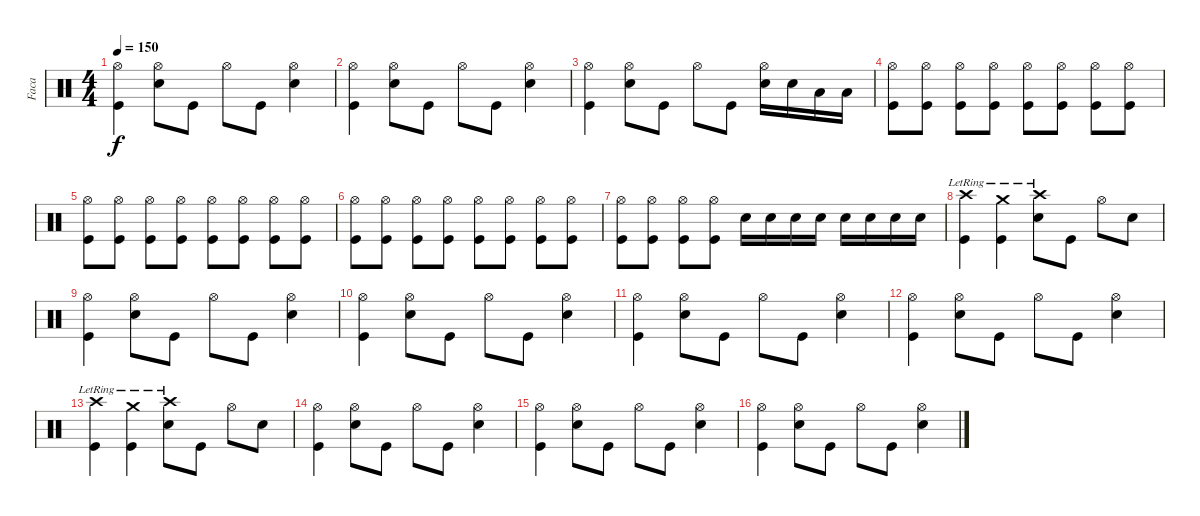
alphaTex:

\track ("Faca" "Faca") {instrument percussion}
\staff {score}
\articulation defaults
\ts (4 4)
\tempo 150
\clef neutral
\ks c
("Hi-Hat (open)" "Kick (hit)").4{dy f} ("Hi-Hat (open)" "Snare (hit) 2").8 "Kick (hit)".8 "Hi-Hat (open)".8 "Kick (hit)".8 ("Hi-Hat (open)" "Snare (hit) 2").4 |
("Hi-Hat (open)" "Kick (hit)").4 ("Hi-Hat (open)" "Snare (hit) 2").8 "Kick (hit)".8 "Hi-Hat (open)".8 "Kick (hit)".8 ("Hi-Hat (open)" "Snare (hit) 2").4 |
("Hi-Hat (open)" "Kick (hit)").4 ("Hi-Hat (open)" "Snare (hit) 2").8 "Kick (hit)".8 "Hi-Hat (open)".8 "Kick (hit)".8 ("Hi-Hat (open)" "Snare (hit) 2").16 "Snare (hit) 2".16 "Low Tom (hit)".16 "Low Floor Tom (hit)".16 |
("Hi-Hat (open)" "Kick (hit)").8 ("Hi-Hat (open)" "Kick (hit)").8 ("Hi-Hat (open)" "Kick (hit)").8 ("Hi-Hat (open)" "Kick (hit)").8 ("Hi-Hat (open)" "Kick (hit)").8 ("Hi-Hat (open)" "Kick (hit)").8 ("Hi-Hat (open)" "Kick (hit)").8 ("Hi-Hat (open)" "Kick (hit)").8 |
("Hi-Hat (open)" "Kick (hit)").8 ("Hi-Hat (open)" "Kick (hit)").8 ("Hi-Hat (open)" "Kick (hit)").8 ("Hi-Hat (open)" "Kick (hit)").8 ("Hi-Hat (open)" "Kick (hit)").8 ("Hi-Hat (open)" "Kick (hit)").8 ("Hi-Hat (open)" "Kick (hit)").8 ("Hi-Hat (open)" "Kick (hit)").8 |
("Hi-Hat (open)" "Kick (hit)").8 ("Hi-Hat (open)" "Kick (hit)").8 ("Hi-Hat (open)" "Kick (hit)").8 ("Hi-Hat (open)" "Kick (hit)").8 ("Hi-Hat (open)" "Kick (hit)").8 ("Hi-Hat (open)" "Kick (hit)").8 ("Hi-Hat (open)" "Kick (hit)").8 ("Hi-Hat (open)" "Kick (hit)").8 |
("Hi-Hat (open)" "Kick (hit)").8 ("Hi-Hat (open)" "Kick (hit)").8 ("Hi-Hat (open)" "Kick (hit)").8 ("Hi-Hat (open)" "Kick (hit)").8 "Snare (hit) 2".16 "Snare (hit) 2".16 "Snare (hit) 2".16 "Snare (hit) 2".16 "Snare (hit) 2".16 "Snare (hit) 2".16 "Snare (hit) 2".16 "Snare (hit) 2".16 |
("Crash high (hit)"{lr} "Kick (hit)").4 ("Crash medium (hit)"{lr} "Kick (hit)").4 ("Crash high (hit)"{lr} "Snare (hit) 2").8 "Kick (hit)".8 "Hi-Hat (open)".8 "Snare (hit) 2".8 |
("Hi-Hat (open)" "Kick (hit)").4 ("Hi-Hat (open)" "Snare (hit) 2").8 "Kick (hit)".8 "Hi-Hat (open)".8 "Kick (hit)".8 ("Hi-Hat (open)" "Snare (hit) 2").4 |
("Hi-Hat (open)" "Kick (hit)").4 ("Hi-Hat (open)" "Snare (hit) 2").8 "Kick (hit)".8 "Hi-Hat (open)".8 "Kick (hit)".8 ("Hi-Hat (open)" "Snare (hit) 2").4 |
("Hi-Hat (open)" "Kick (hit)").4 ("Hi-Hat (open)" "Snare (hit) 2").8 "Kick (hit)".8 "Hi-Hat (open)".8 "Kick (hit)".8 ("Hi-Hat (open)" "Snare (hit) 2").4 |
("Hi-Hat (open)" "Kick (hit)").4 ("Hi-Hat (open)" "Snare (hit) 2").8 "Kick (hit)".8 "Hi-Hat (open)".8 "Kick (hit)".8 ("Hi-Hat (open)" "Snare (hit) 2").4 |
("Crash high (hit)"{lr} "Kick (hit)").4 ("Crash medium (hit)"{lr} "Kick (hit)").4 ("Crash high (hit)"{lr} "Snare (hit) 2").8 "Kick (hit)".8 "Hi-Hat (open)".8 "Snare (hit) 2".8 |
("Hi-Hat (open)" "Kick (hit)").4 ("Hi-Hat (open)" "Snare (hit) 2").8 "Kick (hit)".8 "Hi-Hat (open)".8 "Kick (hit)".8 ("Hi-Hat (open)" "Snare (hit) 2").4 |
("Hi-Hat (open)" "Kick (hit)").4 ("Hi-Hat (open)" "Snare (hit) 2").8 "Kick (hit)".8 "Hi-Hat (open)".8 "Kick (hit)".8 ("Hi-Hat (open)" "Snare (hit) 2").4 |
("Hi-Hat (open)" "Kick (hit)").4 ("Hi-Hat (open)" "Snare (hit) 2").8 "Kick (hit)".8 "Hi-Hat (open)".8 "Kick (hit)".8 ("Hi-Hat (open)" "Snare (hit) 2").4
